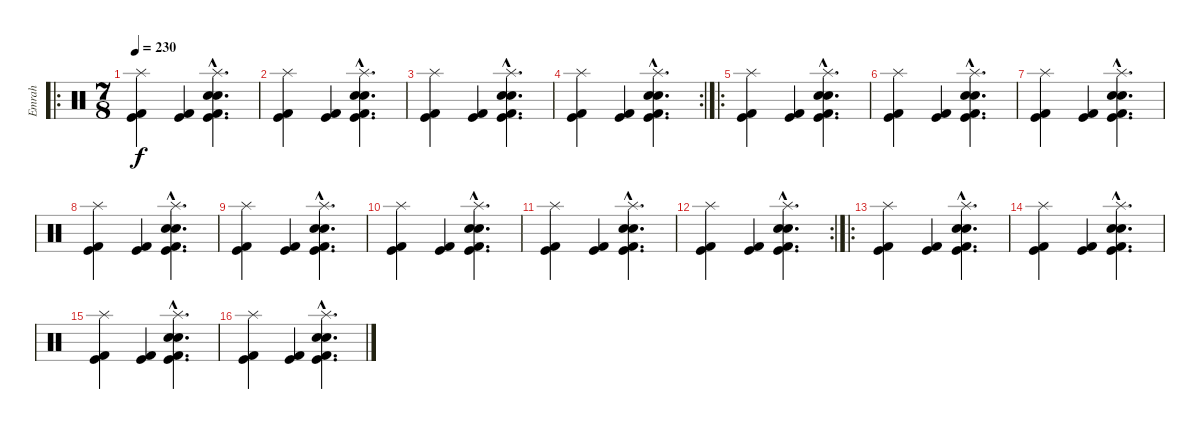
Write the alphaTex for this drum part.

\track ("Emrah" "Emrah") {instrument percussion}
\staff {score}
\articulation defaults
\ro
\ts (7 8)
\tempo 230
\clef neutral
\ks c
("Splash (hit)" "Kick (hit)" "Kick (hit) 2").4{dy f volume 9} ("Kick (hit)" "Kick (hit) 2").4 ("Splash (hit)"{hac} "Snare (hit) 2"{hac} "Snare (hit) 2"{hac} "Kick (hit)"{hac} "Kick (hit) 2"{hac}).4{d} |
("Splash (hit)" "Kick (hit)" "Kick (hit) 2").4 ("Kick (hit)" "Kick (hit) 2").4 ("Splash (hit)"{hac} "Snare (hit) 2"{hac} "Snare (hit) 2"{hac} "Kick (hit)"{hac} "Kick (hit) 2"{hac}).4{d} |
("Splash (hit)" "Kick (hit)" "Kick (hit) 2").4 ("Kick (hit)" "Kick (hit) 2").4 ("Splash (hit)"{hac} "Snare (hit) 2"{hac} "Snare (hit) 2"{hac} "Kick (hit)"{hac} "Kick (hit) 2"{hac}).4{d} |
\rc 2
("Splash (hit)" "Kick (hit)" "Kick (hit) 2").4 ("Kick (hit)" "Kick (hit) 2").4 ("Splash (hit)"{hac} "Snare (hit) 2"{hac} "Snare (hit) 2"{hac} "Kick (hit)"{hac} "Kick (hit) 2"{hac}).4{d} |
\ro
("Splash (hit)" "Kick (hit)" "Kick (hit) 2").4 ("Kick (hit)" "Kick (hit) 2").4 ("Splash (hit)"{hac} "Snare (hit) 2"{hac} "Snare (hit) 2"{hac} "Kick (hit)"{hac} "Kick (hit) 2"{hac}).4{d} |
("Splash (hit)" "Kick (hit)" "Kick (hit) 2").4 ("Kick (hit)" "Kick (hit) 2").4 ("Splash (hit)"{hac} "Snare (hit) 2"{hac} "Snare (hit) 2"{hac} "Kick (hit)"{hac} "Kick (hit) 2"{hac}).4{d} |
("Splash (hit)" "Kick (hit)" "Kick (hit) 2").4 ("Kick (hit)" "Kick (hit) 2").4 ("Splash (hit)"{hac} "Snare (hit) 2"{hac} "Snare (hit) 2"{hac} "Kick (hit)"{hac} "Kick (hit) 2"{hac}).4{d} |
("Splash (hit)" "Kick (hit)" "Kick (hit) 2").4 ("Kick (hit)" "Kick (hit) 2").4 ("Splash (hit)"{hac} "Snare (hit) 2"{hac} "Snare (hit) 2"{hac} "Kick (hit)"{hac} "Kick (hit) 2"{hac}).4{d} |
("Splash (hit)" "Kick (hit)" "Kick (hit) 2").4 ("Kick (hit)" "Kick (hit) 2").4 ("Splash (hit)"{hac} "Snare (hit) 2"{hac} "Snare (hit) 2"{hac} "Kick (hit)"{hac} "Kick (hit) 2"{hac}).4{d} |
("Splash (hit)" "Kick (hit)" "Kick (hit) 2").4 ("Kick (hit)" "Kick (hit) 2").4 ("Splash (hit)"{hac} "Snare (hit) 2"{hac} "Snare (hit) 2"{hac} "Kick (hit)"{hac} "Kick (hit) 2"{hac}).4{d} |
("Splash (hit)" "Kick (hit)" "Kick (hit) 2").4 ("Kick (hit)" "Kick (hit) 2").4 ("Splash (hit)"{hac} "Snare (hit) 2"{hac} "Snare (hit) 2"{hac} "Kick (hit)"{hac} "Kick (hit) 2"{hac}).4{d} |
\rc 2
("Splash (hit)" "Kick (hit)" "Kick (hit) 2").4 ("Kick (hit)" "Kick (hit) 2").4 ("Splash (hit)"{hac} "Snare (hit) 2"{hac} "Snare (hit) 2"{hac} "Kick (hit)"{hac} "Kick (hit) 2"{hac}).4{d} |
\ro
("Splash (hit)" "Kick (hit)" "Kick (hit) 2").4 ("Kick (hit)" "Kick (hit) 2").4 ("Splash (hit)"{hac} "Snare (hit) 2"{hac} "Snare (hit) 2"{hac} "Kick (hit)"{hac} "Kick (hit) 2"{hac}).4{d} |
("Splash (hit)" "Kick (hit)" "Kick (hit) 2").4 ("Kick (hit)" "Kick (hit) 2").4 ("Splash (hit)"{hac} "Snare (hit) 2"{hac} "Snare (hit) 2"{hac} "Kick (hit)"{hac} "Kick (hit) 2"{hac}).4{d} |
("Splash (hit)" "Kick (hit)" "Kick (hit) 2").4 ("Kick (hit)" "Kick (hit) 2").4 ("Splash (hit)"{hac} "Snare (hit) 2"{hac} "Snare (hit) 2"{hac} "Kick (hit)"{hac} "Kick (hit) 2"{hac}).4{d} |
("Splash (hit)" "Kick (hit)" "Kick (hit) 2").4 ("Kick (hit)" "Kick (hit) 2").4 ("Splash (hit)"{hac} "Snare (hit) 2"{hac} "Snare (hit) 2"{hac} "Kick (hit)"{hac} "Kick (hit) 2"{hac}).4{d}
